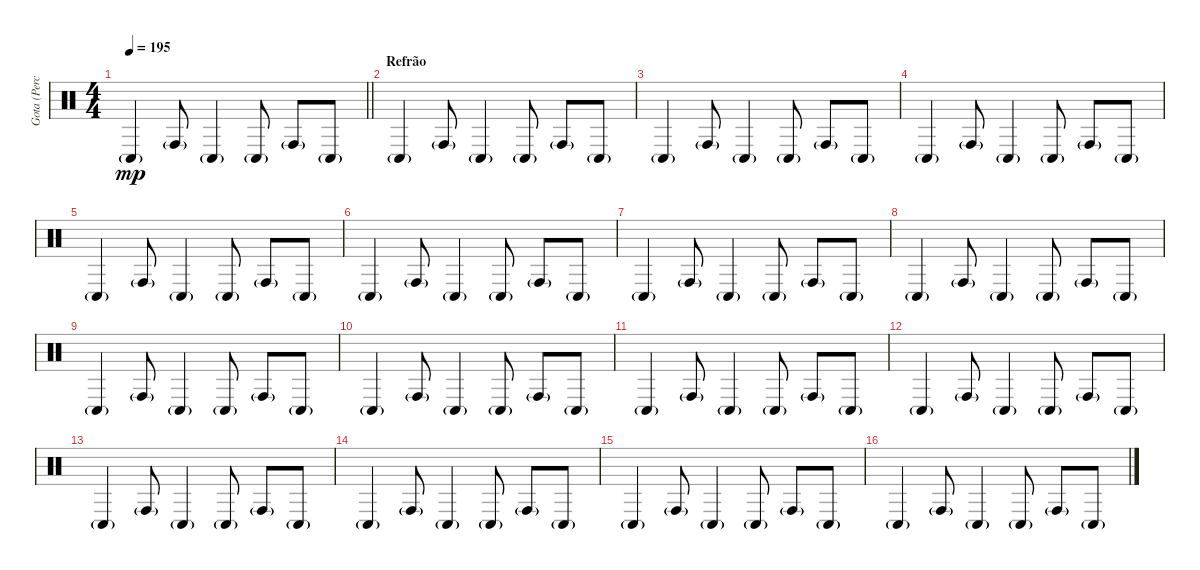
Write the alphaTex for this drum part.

\track ("Gota (Percussion)" "Gota (Perc") {instrument percussion}
\staff {score}
\articulation defaults
\ts (4 4)
\tempo 195
\clef neutral
\barLineRight lightlight
\ks c "Conga low (hit)"{g}.4{dy mp} "Conga high (hit)"{g}.8 "Conga low (hit)"{g}.4 "Conga low (hit)"{g}.8 "Conga high (hit)"{g}.8 "Conga low (hit)"{g}.8
|
\section ("" "Refrão")
"Conga low (hit)"{g}.4 "Conga high (hit)"{g}.8 "Conga low (hit)"{g}.4 "Conga low (hit)"{g}.8 "Conga high (hit)"{g}.8 "Conga low (hit)"{g}.8 |
"Conga low (hit)"{g}.4 "Conga high (hit)"{g}.8 "Conga low (hit)"{g}.4 "Conga low (hit)"{g}.8 "Conga high (hit)"{g}.8 "Conga low (hit)"{g}.8 |
"Conga low (hit)"{g}.4 "Conga high (hit)"{g}.8 "Conga low (hit)"{g}.4 "Conga low (hit)"{g}.8 "Conga high (hit)"{g}.8 "Conga low (hit)"{g}.8 |
"Conga low (hit)"{g}.4 "Conga high (hit)"{g}.8 "Conga low (hit)"{g}.4 "Conga low (hit)"{g}.8 "Conga high (hit)"{g}.8 "Conga low (hit)"{g}.8 |
"Conga low (hit)"{g}.4 "Conga high (hit)"{g}.8 "Conga low (hit)"{g}.4 "Conga low (hit)"{g}.8 "Conga high (hit)"{g}.8 "Conga low (hit)"{g}.8 |
"Conga low (hit)"{g}.4 "Conga high (hit)"{g}.8 "Conga low (hit)"{g}.4 "Conga low (hit)"{g}.8 "Conga high (hit)"{g}.8 "Conga low (hit)"{g}.8 |
"Conga low (hit)"{g}.4 "Conga high (hit)"{g}.8 "Conga low (hit)"{g}.4 "Conga low (hit)"{g}.8 "Conga high (hit)"{g}.8 "Conga low (hit)"{g}.8 |
"Conga low (hit)"{g}.4 "Conga high (hit)"{g}.8 "Conga low (hit)"{g}.4 "Conga low (hit)"{g}.8 "Conga high (hit)"{g}.8 "Conga low (hit)"{g}.8 |
"Conga low (hit)"{g}.4 "Conga high (hit)"{g}.8 "Conga low (hit)"{g}.4 "Conga low (hit)"{g}.8 "Conga high (hit)"{g}.8 "Conga low (hit)"{g}.8 |
"Conga low (hit)"{g}.4 "Conga high (hit)"{g}.8 "Conga low (hit)"{g}.4 "Conga low (hit)"{g}.8 "Conga high (hit)"{g}.8 "Conga low (hit)"{g}.8 |
"Conga low (hit)"{g}.4 "Conga high (hit)"{g}.8 "Conga low (hit)"{g}.4 "Conga low (hit)"{g}.8 "Conga high (hit)"{g}.8 "Conga low (hit)"{g}.8 |
"Conga low (hit)"{g}.4 "Conga high (hit)"{g}.8 "Conga low (hit)"{g}.4 "Conga low (hit)"{g}.8 "Conga high (hit)"{g}.8 "Conga low (hit)"{g}.8 |
"Conga low (hit)"{g}.4 "Conga high (hit)"{g}.8 "Conga low (hit)"{g}.4 "Conga low (hit)"{g}.8 "Conga high (hit)"{g}.8 "Conga low (hit)"{g}.8 |
"Conga low (hit)"{g}.4 "Conga high (hit)"{g}.8 "Conga low (hit)"{g}.4 "Conga low (hit)"{g}.8 "Conga high (hit)"{g}.8 "Conga low (hit)"{g}.8 |
"Conga low (hit)"{g}.4 "Conga high (hit)"{g}.8 "Conga low (hit)"{g}.4 "Conga low (hit)"{g}.8 "Conga high (hit)"{g}.8 "Conga low (hit)"{g}.8
